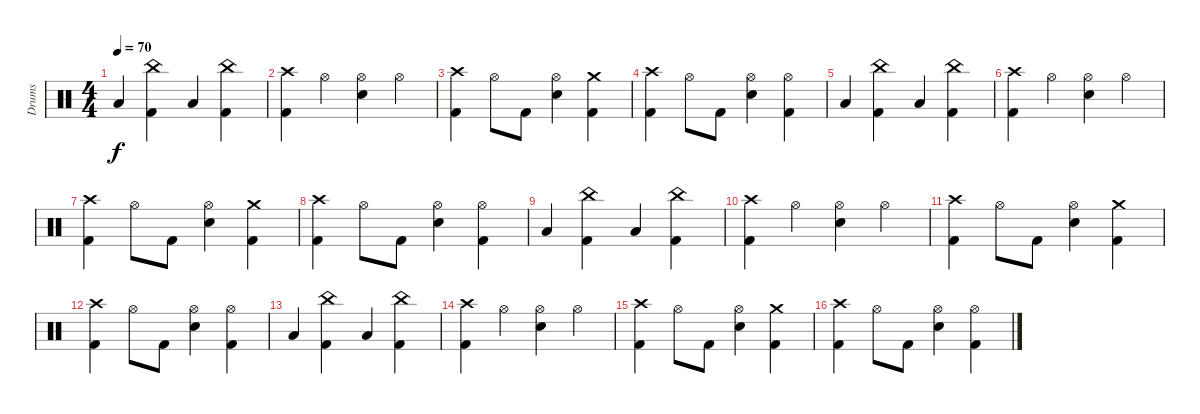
\track ("Drums" "Drums") {instrument percussion}
\staff {score}
\articulation defaults
\ts (4 4)
\tempo 70
\clef neutral
\ks c "Low Floor Tom (hit)".4{dy f}
("China (hit)" "Kick (hit) 2").4 "Low Floor Tom (hit)".4 ("China (hit)" "Kick (hit) 2").4 |
("Crash high (hit)" "Kick (hit) 2").4 "Hi-Hat (open)".4 ("Hi-Hat (open)" "Electric Snare (hit)").4 "Hi-Hat (open)".4 |
("Crash high (hit)" "Kick (hit) 2").4 "Hi-Hat (open)".8 "Kick (hit) 2".8 ("Hi-Hat (open)" "Electric Snare (hit)").4 ("Crash medium (hit)" "Kick (hit) 2").4 |
("Crash high (hit)" "Kick (hit) 2").4 "Hi-Hat (open)".8 "Kick (hit) 2".8 ("Hi-Hat (open)" "Electric Snare (hit)").4 ("Hi-Hat (open)" "Kick (hit) 2").4 |
"Low Floor Tom (hit)".4{volume 10} ("China (hit)" "Kick (hit) 2").4 "Low Floor Tom (hit)".4 ("China (hit)" "Kick (hit) 2").4 |
("Crash high (hit)" "Kick (hit) 2").4 "Hi-Hat (open)".4 ("Hi-Hat (open)" "Electric Snare (hit)").4 "Hi-Hat (open)".4 |
("Crash high (hit)" "Kick (hit) 2").4 "Hi-Hat (open)".8 "Kick (hit) 2".8 ("Hi-Hat (open)" "Electric Snare (hit)").4 ("Crash medium (hit)" "Kick (hit) 2").4 |
("Crash high (hit)" "Kick (hit) 2").4 "Hi-Hat (open)".8 "Kick (hit) 2".8 ("Hi-Hat (open)" "Electric Snare (hit)").4 ("Hi-Hat (open)" "Kick (hit) 2").4 |
"Low Floor Tom (hit)".4{volume 8} ("China (hit)" "Kick (hit) 2").4 "Low Floor Tom (hit)".4 ("China (hit)" "Kick (hit) 2").4 |
("Crash high (hit)" "Kick (hit) 2").4 "Hi-Hat (open)".4 ("Hi-Hat (open)" "Electric Snare (hit)").4 "Hi-Hat (open)".4 |
("Crash high (hit)" "Kick (hit) 2").4 "Hi-Hat (open)".8 "Kick (hit) 2".8 ("Hi-Hat (open)" "Electric Snare (hit)").4 ("Crash medium (hit)" "Kick (hit) 2").4 |
("Crash high (hit)" "Kick (hit) 2").4 "Hi-Hat (open)".8 "Kick (hit) 2".8 ("Hi-Hat (open)" "Electric Snare (hit)").4 ("Hi-Hat (open)" "Kick (hit) 2").4 |
"Low Floor Tom (hit)".4{volume 4} ("China (hit)" "Kick (hit) 2").4 "Low Floor Tom (hit)".4 ("China (hit)" "Kick (hit) 2").4 |
("Crash high (hit)" "Kick (hit) 2").4 "Hi-Hat (open)".4 ("Hi-Hat (open)" "Electric Snare (hit)").4 "Hi-Hat (open)".4 |
("Crash high (hit)" "Kick (hit) 2").4 "Hi-Hat (open)".8 "Kick (hit) 2".8 ("Hi-Hat (open)" "Electric Snare (hit)").4 ("Crash medium (hit)" "Kick (hit) 2").4 |
("Crash high (hit)" "Kick (hit) 2").4 "Hi-Hat (open)".8 "Kick (hit) 2".8 ("Hi-Hat (open)" "Electric Snare (hit)").4 ("Hi-Hat (open)" "Kick (hit) 2").4
